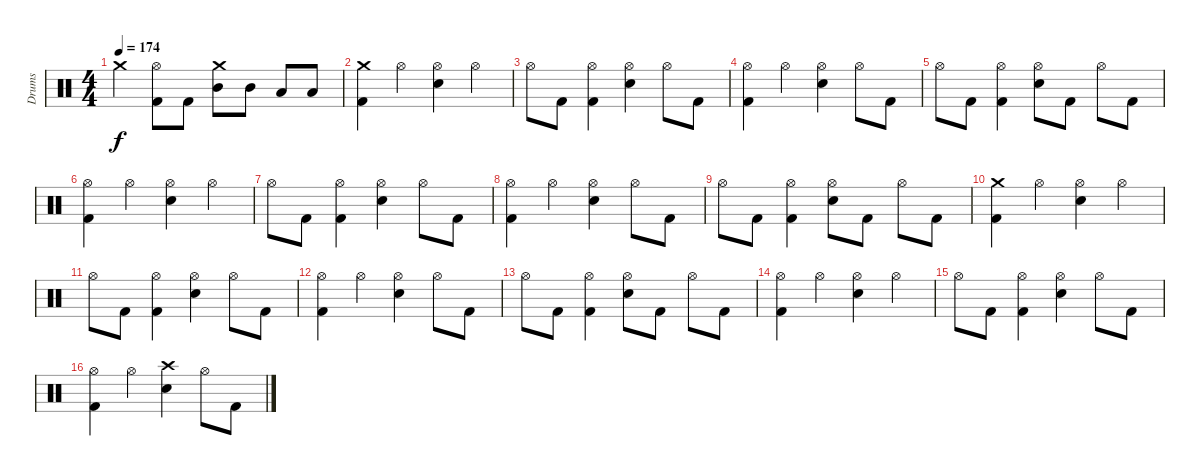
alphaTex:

\track ("Drums" "Drums") {instrument percussion}
\staff {score}
\articulation defaults
\ts (4 4)
\tempo 174
\clef neutral
\ks c "Crash medium (hit)".4{dy f}
("Hi-Hat (open)" "Kick (hit) 2").8 "Kick (hit) 2".8 ("Crash medium (hit)" "Mid Tom (hit)").8 "Mid Tom (hit)".8 "Low Tom (hit)".8 "Low Floor Tom (hit)".8 |
("Crash medium (hit)" "Kick (hit) 2").4 "Hi-Hat (open)".4 ("Hi-Hat (open)" "Snare (hit) 2").4 "Hi-Hat (open)".4 |
"Hi-Hat (open)".8 "Kick (hit) 2".8 ("Hi-Hat (open)" "Kick (hit) 2").4 ("Hi-Hat (open)" "Snare (hit) 2").4 "Hi-Hat (open)".8 "Kick (hit) 2".8 |
("Hi-Hat (open)" "Kick (hit) 2").4 "Hi-Hat (open)".4 ("Hi-Hat (open)" "Snare (hit) 2").4 "Hi-Hat (open)".8 "Kick (hit) 2".8 |
"Hi-Hat (open)".8 "Kick (hit) 2".8 ("Hi-Hat (open)" "Kick (hit) 2").4 ("Hi-Hat (open)" "Snare (hit) 2").8 "Kick (hit) 2".8 "Hi-Hat (open)".8 "Kick (hit) 2".8 |
("Hi-Hat (open)" "Kick (hit) 2").4 "Hi-Hat (open)".4 ("Hi-Hat (open)" "Snare (hit) 2").4 "Hi-Hat (open)".4 |
"Hi-Hat (open)".8 "Kick (hit) 2".8 ("Hi-Hat (open)" "Kick (hit) 2").4 ("Hi-Hat (open)" "Snare (hit) 2").4 "Hi-Hat (open)".8 "Kick (hit) 2".8 |
("Hi-Hat (open)" "Kick (hit) 2").4 "Hi-Hat (open)".4 ("Hi-Hat (open)" "Snare (hit) 2").4 "Hi-Hat (open)".8 "Kick (hit) 2".8 |
"Hi-Hat (open)".8 "Kick (hit) 2".8 ("Hi-Hat (open)" "Kick (hit) 2").4 ("Hi-Hat (open)" "Snare (hit) 2").8 "Kick (hit) 2".8 "Hi-Hat (open)".8 "Kick (hit) 2".8 |
("Crash medium (hit)" "Kick (hit) 2").4 "Hi-Hat (open)".4 ("Hi-Hat (open)" "Snare (hit) 2").4 "Hi-Hat (open)".4 |
"Hi-Hat (open)".8 "Kick (hit) 2".8 ("Hi-Hat (open)" "Kick (hit) 2").4 ("Hi-Hat (open)" "Snare (hit) 2").4 "Hi-Hat (open)".8 "Kick (hit) 2".8 |
("Hi-Hat (open)" "Kick (hit) 2").4 "Hi-Hat (open)".4 ("Hi-Hat (open)" "Snare (hit) 2").4 "Hi-Hat (open)".8 "Kick (hit) 2".8 |
"Hi-Hat (open)".8 "Kick (hit) 2".8 ("Hi-Hat (open)" "Kick (hit) 2").4 ("Hi-Hat (open)" "Snare (hit) 2").8 "Kick (hit) 2".8 "Hi-Hat (open)".8 "Kick (hit) 2".8 |
("Hi-Hat (open)" "Kick (hit) 2").4 "Hi-Hat (open)".4 ("Hi-Hat (open)" "Snare (hit) 2").4 "Hi-Hat (open)".4 |
"Hi-Hat (open)".8 "Kick (hit) 2".8 ("Hi-Hat (open)" "Kick (hit) 2").4 ("Hi-Hat (open)" "Snare (hit) 2").4 "Hi-Hat (open)".8 "Kick (hit) 2".8 |
("Hi-Hat (open)" "Kick (hit) 2").4 "Hi-Hat (open)".4 ("Crash high (hit)" "Snare (hit) 2").4 "Hi-Hat (open)".8 "Kick (hit) 2".8
